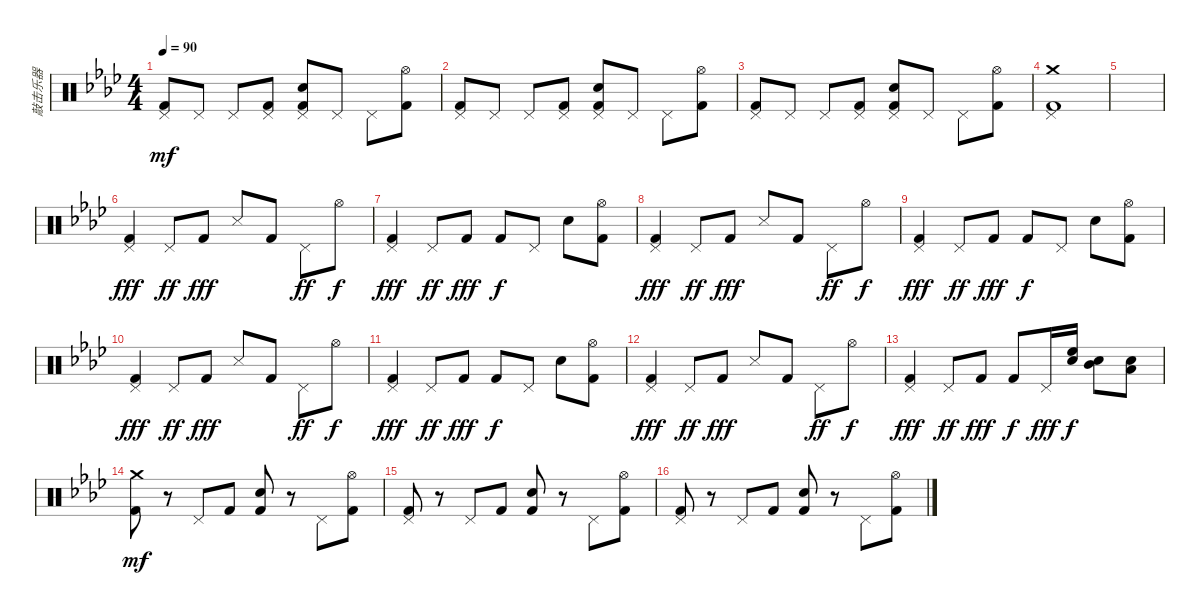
\track ("敲击乐器" "敲击乐器") {instrument percussion}
\staff {score}
\articulation defaults
\ts (4 4)
\tempo 90
\clef neutral
\ks ab
("Pedal Hi-Hat (hit)" "Kick (hit) 2").8{dy mf} "Pedal Hi-Hat (hit)".8 "Pedal Hi-Hat (hit)".8 ("Pedal Hi-Hat (hit)" "Kick (hit) 2").8 ("Pedal Hi-Hat (hit)" "Snare (hit) 2" "Kick (hit) 2").8 "Pedal Hi-Hat (hit)".8 "Pedal Hi-Hat (hit)".8 ("Hi-Hat (open)" "Kick (hit) 2").8 |
("Pedal Hi-Hat (hit)" "Kick (hit) 2").8 "Pedal Hi-Hat (hit)".8 "Pedal Hi-Hat (hit)".8 ("Pedal Hi-Hat (hit)" "Kick (hit) 2").8 ("Pedal Hi-Hat (hit)" "Snare (hit) 2" "Kick (hit) 2").8 "Pedal Hi-Hat (hit)".8 "Pedal Hi-Hat (hit)".8 ("Hi-Hat (open)" "Kick (hit) 2").8 |
("Pedal Hi-Hat (hit)" "Kick (hit) 2").8 "Pedal Hi-Hat (hit)".8 "Pedal Hi-Hat (hit)".8 ("Pedal Hi-Hat (hit)" "Kick (hit) 2").8 ("Pedal Hi-Hat (hit)" "Snare (hit) 2" "Kick (hit) 2").8 "Pedal Hi-Hat (hit)".8 "Pedal Hi-Hat (hit)".8 ("Hi-Hat (open)" "Kick (hit) 2").8 |
("Crash medium (hit)" "Pedal Hi-Hat (hit)" "Kick (hit) 2").1 |
|
("Pedal Hi-Hat (hit)" "Kick (hit) 2").4{dy fff} "Pedal Hi-Hat (hit)".8{dy ff} "Kick (hit) 2".8{dy fff} "Snare (side stick) 3".8 "Kick (hit) 2".8 "Pedal Hi-Hat (hit)".8{dy ff} "Hi-Hat (open)".8{dy f} |
("Pedal Hi-Hat (hit)" "Kick (hit) 2").4{dy fff} "Pedal Hi-Hat (hit)".8{dy ff} "Kick (hit) 2".8{dy fff} "Kick (hit) 2".8{dy f} "Pedal Hi-Hat (hit)".8 "Snare (hit) 2".8 ("Hi-Hat (open)" "Kick (hit) 2").8 |
("Pedal Hi-Hat (hit)" "Kick (hit) 2").4{dy fff} "Pedal Hi-Hat (hit)".8{dy ff} "Kick (hit) 2".8{dy fff} "Snare (side stick) 3".8 "Kick (hit) 2".8 "Pedal Hi-Hat (hit)".8{dy ff} "Hi-Hat (open)".8{dy f} |
("Pedal Hi-Hat (hit)" "Kick (hit) 2").4{dy fff} "Pedal Hi-Hat (hit)".8{dy ff} "Kick (hit) 2".8{dy fff} "Kick (hit) 2".8{dy f} "Pedal Hi-Hat (hit)".8 "Snare (hit) 2".8 ("Hi-Hat (open)" "Kick (hit) 2").8 |
("Pedal Hi-Hat (hit)" "Kick (hit) 2").4{dy fff} "Pedal Hi-Hat (hit)".8{dy ff} "Kick (hit) 2".8{dy fff} "Snare (side stick) 3".8 "Kick (hit) 2".8 "Pedal Hi-Hat (hit)".8{dy ff} "Hi-Hat (open)".8{dy f} |
("Pedal Hi-Hat (hit)" "Kick (hit) 2").4{dy fff} "Pedal Hi-Hat (hit)".8{dy ff} "Kick (hit) 2".8{dy fff} "Kick (hit) 2".8{dy f} "Pedal Hi-Hat (hit)".8 "Snare (hit) 2".8 ("Hi-Hat (open)" "Kick (hit) 2").8 |
("Pedal Hi-Hat (hit)" "Kick (hit) 2").4{dy fff} "Pedal Hi-Hat (hit)".8{dy ff} "Kick (hit) 2".8{dy fff} "Snare (side stick) 3".8 "Kick (hit) 2".8 "Pedal Hi-Hat (hit)".8{dy ff} "Hi-Hat (open)".8{dy f} |
("Pedal Hi-Hat (hit)" "Kick (hit) 2").4{dy fff} "Pedal Hi-Hat (hit)".8{dy ff} "Kick (hit) 2".8{dy fff} "Kick (hit) 2".8{dy f} "Pedal Hi-Hat (hit)".16{dy fff} ("High Floor Tom (hit)" "Electric Snare (hit)").16{dy f} ("Mid Tom (hit)" "Snare (hit) 2").8 ("Low Tom (hit)" "Snare (hit) 2").8 |
("Crash medium (hit)" "Kick (hit) 2").8{dy mf} r.8 "Pedal Hi-Hat (hit)".8 "Kick (hit) 2".8 ("Snare (hit) 2" "Kick (hit) 2").8 r.8 "Pedal Hi-Hat (hit)".8 ("Hi-Hat (open)" "Kick (hit) 2").8 |
("Pedal Hi-Hat (hit)" "Kick (hit) 2").8 r.8 "Pedal Hi-Hat (hit)".8 "Kick (hit) 2".8 ("Snare (hit) 2" "Kick (hit) 2").8 r.8 "Pedal Hi-Hat (hit)".8 ("Hi-Hat (open)" "Kick (hit) 2").8 |
("Pedal Hi-Hat (hit)" "Kick (hit) 2").8 r.8 "Pedal Hi-Hat (hit)".8 "Kick (hit) 2".8 ("Snare (hit) 2" "Kick (hit) 2").8 r.8 "Pedal Hi-Hat (hit)".8 ("Hi-Hat (open)" "Kick (hit) 2").8
